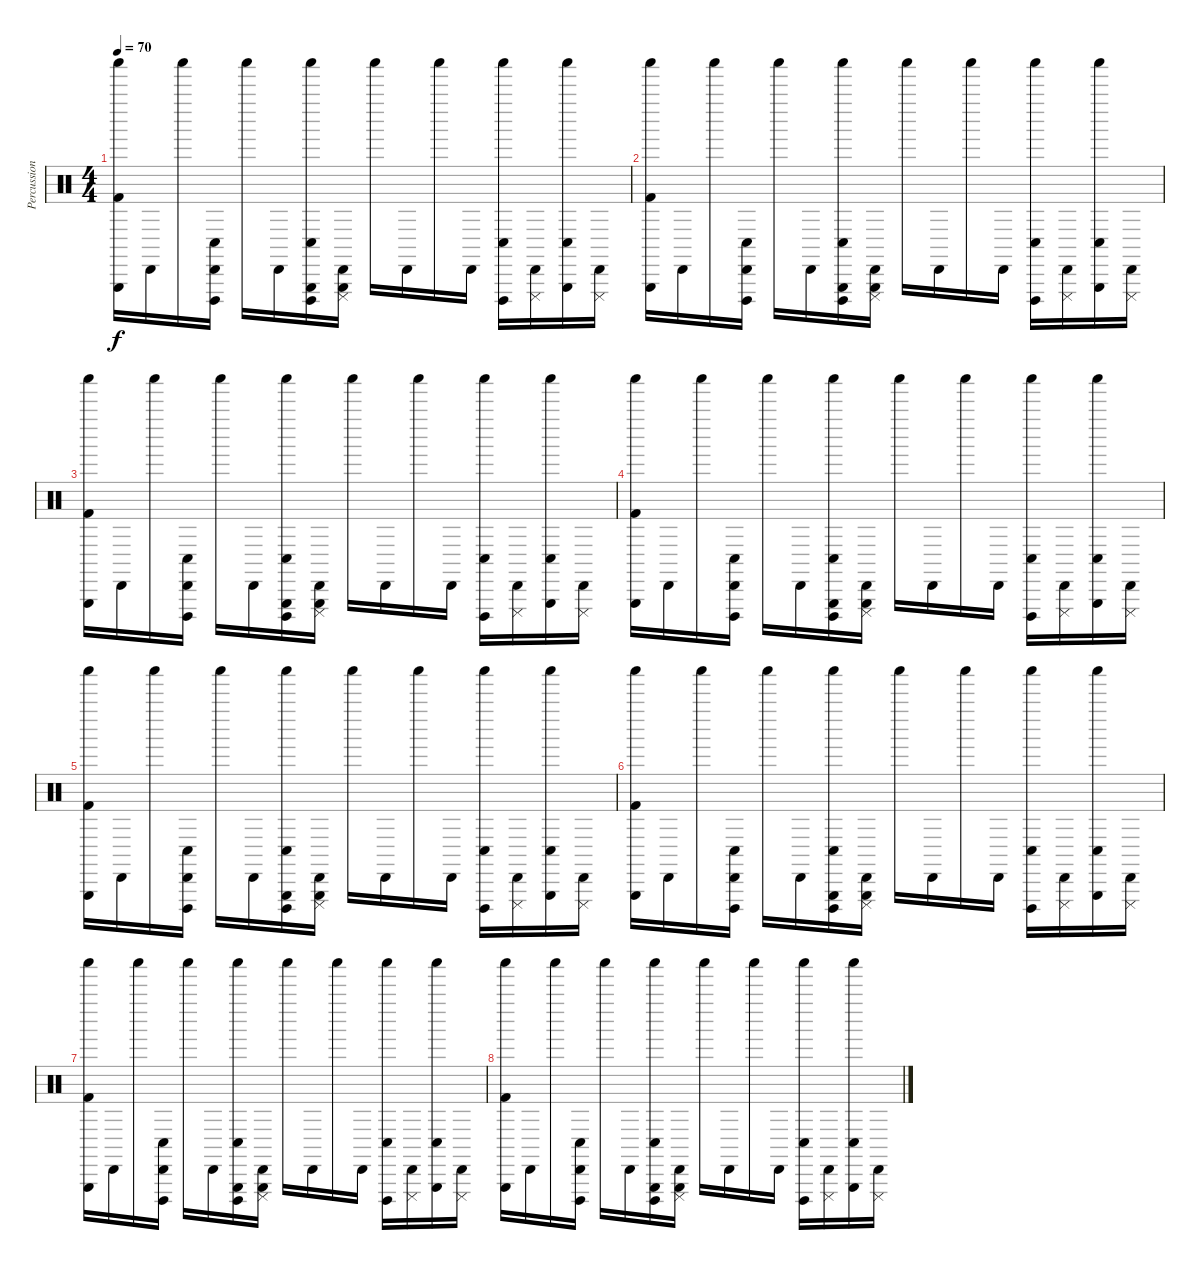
\track ("Percussion" "Percussion") {instrument percussion}
\staff {score}
\articulation defaults
\ts (4 4)
\tempo 70
\clef neutral
\ks c
("Triangle (hit)" "Shaker (hit)" "Kick (hit) 2").16{dy f} "Cabasa (hit)".16 "Shaker (hit)".16 ("Cabasa (hit)" "Cuica (open)" "Conga low (hit)").16 "Shaker (hit)".16 "Cabasa (hit)".16 ("Triangle (hit)" "Shaker (hit)" "Cuica (open)" "Conga low (hit)").16 ("Triangle (hit)" "Cabasa (hit)" "Cuica (mute)").16 "Shaker (hit)".16 "Cabasa (hit)".16 "Shaker (hit)".16 "Cabasa (hit)".16 ("Shaker (hit)" "Cuica (open)" "Conga low (hit)").16 ("Cabasa (hit)" "Cuica (mute)").16 ("Triangle (hit)" "Shaker (hit)" "Conga low (hit)").16 ("Cabasa (hit)" "Cuica (mute)").16 |
("Triangle (hit)" "Shaker (hit)" "Kick (hit) 2").16 "Cabasa (hit)".16 "Shaker (hit)".16 ("Cabasa (hit)" "Cuica (open)" "Conga low (hit)").16 "Shaker (hit)".16 "Cabasa (hit)".16 ("Triangle (hit)" "Shaker (hit)" "Cuica (open)" "Conga low (hit)").16 ("Triangle (hit)" "Cabasa (hit)" "Cuica (mute)").16 "Shaker (hit)".16 "Cabasa (hit)".16 "Shaker (hit)".16 "Cabasa (hit)".16 ("Shaker (hit)" "Cuica (open)" "Conga low (hit)").16 ("Cabasa (hit)" "Cuica (mute)").16 ("Triangle (hit)" "Shaker (hit)" "Conga low (hit)").16 ("Cabasa (hit)" "Cuica (mute)").16 |
("Triangle (hit)" "Shaker (hit)" "Kick (hit) 2").16 "Cabasa (hit)".16 "Shaker (hit)".16 ("Cabasa (hit)" "Cuica (open)" "Conga low (hit)").16 "Shaker (hit)".16 "Cabasa (hit)".16 ("Triangle (hit)" "Shaker (hit)" "Cuica (open)" "Conga low (hit)").16 ("Triangle (hit)" "Cabasa (hit)" "Cuica (mute)").16 "Shaker (hit)".16 "Cabasa (hit)".16 "Shaker (hit)".16 "Cabasa (hit)".16 ("Shaker (hit)" "Cuica (open)" "Conga low (hit)").16 ("Cabasa (hit)" "Cuica (mute)").16 ("Triangle (hit)" "Shaker (hit)" "Conga low (hit)").16 ("Cabasa (hit)" "Cuica (mute)").16 |
("Triangle (hit)" "Shaker (hit)" "Kick (hit) 2").16 "Cabasa (hit)".16 "Shaker (hit)".16 ("Cabasa (hit)" "Cuica (open)" "Conga low (hit)").16 "Shaker (hit)".16 "Cabasa (hit)".16 ("Triangle (hit)" "Shaker (hit)" "Cuica (open)" "Conga low (hit)").16 ("Triangle (hit)" "Cabasa (hit)" "Cuica (mute)").16 "Shaker (hit)".16 "Cabasa (hit)".16 "Shaker (hit)".16 "Cabasa (hit)".16 ("Shaker (hit)" "Cuica (open)" "Conga low (hit)").16 ("Cabasa (hit)" "Cuica (mute)").16 ("Triangle (hit)" "Shaker (hit)" "Conga low (hit)").16 ("Cabasa (hit)" "Cuica (mute)").16 |
("Triangle (hit)" "Shaker (hit)" "Kick (hit) 2").16 "Cabasa (hit)".16 "Shaker (hit)".16 ("Cabasa (hit)" "Cuica (open)" "Conga low (hit)").16 "Shaker (hit)".16 "Cabasa (hit)".16 ("Triangle (hit)" "Shaker (hit)" "Cuica (open)" "Conga low (hit)").16 ("Triangle (hit)" "Cabasa (hit)" "Cuica (mute)").16 "Shaker (hit)".16 "Cabasa (hit)".16 "Shaker (hit)".16 "Cabasa (hit)".16 ("Shaker (hit)" "Cuica (open)" "Conga low (hit)").16 ("Cabasa (hit)" "Cuica (mute)").16 ("Triangle (hit)" "Shaker (hit)" "Conga low (hit)").16 ("Cabasa (hit)" "Cuica (mute)").16 |
("Triangle (hit)" "Shaker (hit)" "Kick (hit) 2").16 "Cabasa (hit)".16 "Shaker (hit)".16 ("Cabasa (hit)" "Cuica (open)" "Conga low (hit)").16 "Shaker (hit)".16 "Cabasa (hit)".16 ("Triangle (hit)" "Shaker (hit)" "Cuica (open)" "Conga low (hit)").16 ("Triangle (hit)" "Cabasa (hit)" "Cuica (mute)").16 "Shaker (hit)".16 "Cabasa (hit)".16 "Shaker (hit)".16 "Cabasa (hit)".16 ("Shaker (hit)" "Cuica (open)" "Conga low (hit)").16 ("Cabasa (hit)" "Cuica (mute)").16 ("Triangle (hit)" "Shaker (hit)" "Conga low (hit)").16 ("Cabasa (hit)" "Cuica (mute)").16 |
("Triangle (hit)" "Shaker (hit)" "Kick (hit) 2").16 "Cabasa (hit)".16 "Shaker (hit)".16 ("Cabasa (hit)" "Cuica (open)" "Conga low (hit)").16 "Shaker (hit)".16 "Cabasa (hit)".16 ("Triangle (hit)" "Shaker (hit)" "Cuica (open)" "Conga low (hit)").16 ("Triangle (hit)" "Cabasa (hit)" "Cuica (mute)").16 "Shaker (hit)".16 "Cabasa (hit)".16 "Shaker (hit)".16 "Cabasa (hit)".16 ("Shaker (hit)" "Cuica (open)" "Conga low (hit)").16 ("Cabasa (hit)" "Cuica (mute)").16 ("Triangle (hit)" "Shaker (hit)" "Conga low (hit)").16 ("Cabasa (hit)" "Cuica (mute)").16 |
("Triangle (hit)" "Shaker (hit)" "Kick (hit) 2").16 "Cabasa (hit)".16 "Shaker (hit)".16 ("Cabasa (hit)" "Cuica (open)" "Conga low (hit)").16 "Shaker (hit)".16 "Cabasa (hit)".16 ("Triangle (hit)" "Shaker (hit)" "Cuica (open)" "Conga low (hit)").16 ("Triangle (hit)" "Cabasa (hit)" "Cuica (mute)").16 "Shaker (hit)".16 "Cabasa (hit)".16 "Shaker (hit)".16 "Cabasa (hit)".16 ("Shaker (hit)" "Cuica (open)" "Conga low (hit)").16 ("Cabasa (hit)" "Cuica (mute)").16 ("Triangle (hit)" "Shaker (hit)" "Conga low (hit)").16 ("Cabasa (hit)" "Cuica (mute)").16
